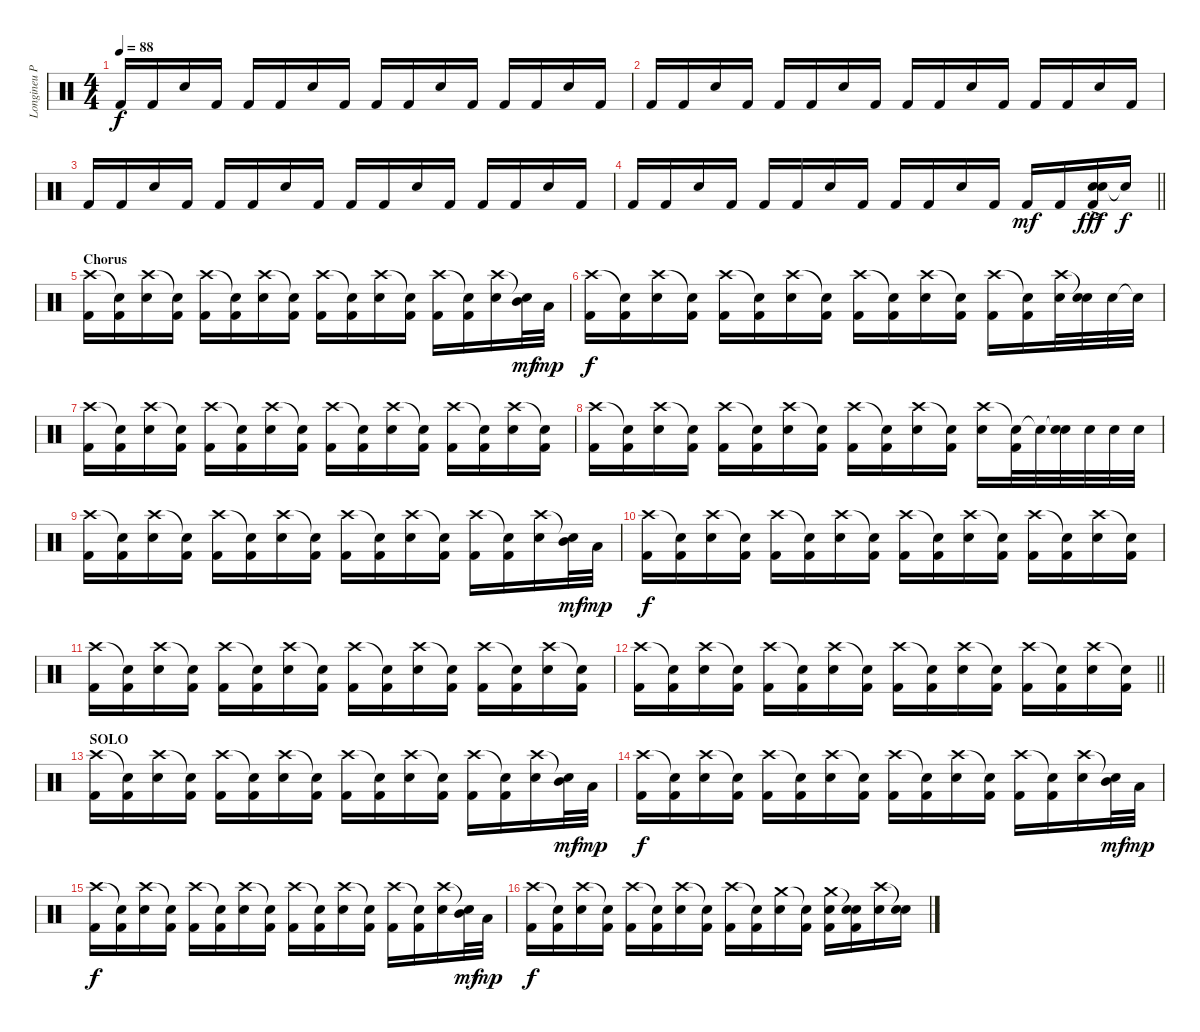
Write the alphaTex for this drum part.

\track ("Longineu Parsons ||| (Drums)" "Longineu P") {instrument percussion}
\staff {score}
\articulation defaults
\ts (4 4)
\tempo 88
\clef neutral
\ks c "Kick (hit) 2".16{dy f} "Kick (hit) 2".16 "Electric Snare (hit)".16 "Kick (hit) 2".16 "Kick (hit) 2".16 "Kick (hit) 2".16 "Electric Snare (hit)".16 "Kick (hit) 2".16 "Kick (hit) 2".16 "Kick (hit) 2".16 "Electric Snare (hit)".16 "Kick (hit) 2".16 "Kick (hit) 2".16 "Kick (hit) 2".16 "Electric Snare (hit)".16 "Kick (hit) 2".16
|
"Kick (hit) 2".16 "Kick (hit) 2".16 "Electric Snare (hit)".16 "Kick (hit) 2".16 "Kick (hit) 2".16 "Kick (hit) 2".16 "Electric Snare (hit)".16 "Kick (hit) 2".16 "Kick (hit) 2".16 "Kick (hit) 2".16 "Electric Snare (hit)".16 "Kick (hit) 2".16 "Kick (hit) 2".16 "Kick (hit) 2".16 "Electric Snare (hit)".16 "Kick (hit) 2".16 |
"Kick (hit) 2".16 "Kick (hit) 2".16 "Electric Snare (hit)".16 "Kick (hit) 2".16 "Kick (hit) 2".16 "Kick (hit) 2".16 "Electric Snare (hit)".16 "Kick (hit) 2".16 "Kick (hit) 2".16 "Kick (hit) 2".16 "Electric Snare (hit)".16 "Kick (hit) 2".16 "Kick (hit) 2".16 "Kick (hit) 2".16 "Electric Snare (hit)".16 "Kick (hit) 2".16 |
\barLineRight lightlight "Kick (hit) 2".16 "Kick (hit) 2".16 "Electric Snare (hit)".16 "Kick (hit) 2".16 "Kick (hit) 2".16 "Kick (hit) 2".16 "Electric Snare (hit)".16 "Kick (hit) 2".16 "Kick (hit) 2".16 "Kick (hit) 2".16 "Electric Snare (hit)".16 "Kick (hit) 2".16 "Kick (hit) 2".16{dy mf} "Kick (hit) 2".16
("Snare (hit) 2" "Electric Snare (hit)"{ac} "Kick (hit) 2").16{dy fff} "Snare (hit)"{t}.16{dy f} |
\section ("" "Chorus")
("Crash high (hit)" "Kick (hit) 2").16 ("Snare (hit)"{t} "Kick (hit) 2").16 ("Crash high (hit)" "Electric Snare (hit)").16 ("Snare (hit)"{t} "Kick (hit) 2").16 ("Crash high (hit)" "Kick (hit) 2").16 ("Snare (hit)"{t} "Kick (hit) 2").16 ("Crash high (hit)" "Electric Snare (hit)").16 ("Snare (hit)"{t} "Kick (hit) 2").16 ("Crash high (hit)" "Kick (hit) 2").16 ("Snare (hit)"{t} "Kick (hit) 2").16 ("Crash high (hit)" "Electric Snare (hit)").16 ("Snare (hit)"{t} "Kick (hit) 2").16 ("Crash high (hit)" "Kick (hit) 2").16 ("Snare (hit)"{t} "Kick (hit) 2").16 ("Crash high (hit)" "Electric Snare (hit)").16 ("Snare (hit)"{t} "Mid Tom (hit)").32{dy mf} "Low Tom (hit)".32{dy mp} |
("Crash high (hit)" "Kick (hit) 2").16{dy f} ("Snare (hit)"{t} "Kick (hit) 2").16 ("Crash high (hit)" "Electric Snare (hit)").16 ("Snare (hit)"{t} "Kick (hit) 2").16 ("Crash high (hit)" "Kick (hit) 2").16 ("Snare (hit)"{t} "Kick (hit) 2").16 ("Crash high (hit)" "Electric Snare (hit)").16 ("Snare (hit)"{t} "Kick (hit) 2").16 ("Crash high (hit)" "Kick (hit) 2").16 ("Snare (hit)"{t} "Kick (hit) 2").16 ("Crash high (hit)" "Electric Snare (hit)").16 ("Snare (hit)"{t} "Kick (hit) 2").16 ("Crash high (hit)" "Kick (hit) 2").16 ("Snare (hit)"{t} "Kick (hit) 2").16 ("Crash high (hit)" "Electric Snare (hit)").32 ("Snare (hit)"{t} "Electric Snare (hit)").32 "Electric Snare (hit)".32 "Electric Snare (hit)"{t}.32 |
("Crash high (hit)" "Kick (hit) 2").16 ("Snare (hit)"{t} "Kick (hit) 2").16 ("Crash high (hit)" "Electric Snare (hit)").16 ("Snare (hit)"{t} "Kick (hit) 2").16 ("Crash high (hit)" "Kick (hit) 2").16 ("Snare (hit)"{t} "Kick (hit) 2").16 ("Crash high (hit)" "Electric Snare (hit)").16 ("Snare (hit)"{t} "Kick (hit) 2").16 ("Crash high (hit)" "Kick (hit) 2").16 ("Snare (hit)"{t} "Kick (hit) 2").16 ("Crash high (hit)" "Electric Snare (hit)").16 ("Snare (hit)"{t} "Kick (hit) 2").16 ("Crash high (hit)" "Kick (hit) 2").16 ("Snare (hit)"{t} "Kick (hit) 2").16 ("Crash high (hit)" "Electric Snare (hit)").16 ("Snare (hit)"{t} "Kick (hit) 2").16 |
("Crash high (hit)" "Kick (hit) 2").16 ("Snare (hit)"{t} "Kick (hit) 2").16 ("Crash high (hit)" "Electric Snare (hit)").16 ("Snare (hit)"{t} "Kick (hit) 2").16 ("Crash high (hit)" "Kick (hit) 2").16 ("Snare (hit)"{t} "Kick (hit) 2").16 ("Crash high (hit)" "Electric Snare (hit)").16 ("Snare (hit)"{t} "Kick (hit) 2").16 ("Crash high (hit)" "Kick (hit) 2").16 ("Snare (hit)"{t} "Kick (hit) 2").16 ("Crash high (hit)" "Electric Snare (hit)").16 ("Snare (hit)"{t} "Kick (hit) 2").16 ("Crash high (hit)" "Snare (hit) 2").16 ("Snare (hit)"{t} "Kick (hit) 2").32 "Electric Snare (hit)"{t}.32 ("Snare (hit)"{t} "Electric Snare (hit)").32 "Electric Snare (hit)".32 "Electric Snare (hit)".32 "Electric Snare (hit)".32 |
("Crash high (hit)" "Kick (hit) 2").16 ("Snare (hit)"{t} "Kick (hit) 2").16 ("Crash high (hit)" "Electric Snare (hit)").16 ("Snare (hit)"{t} "Kick (hit) 2").16 ("Crash high (hit)" "Kick (hit) 2").16 ("Snare (hit)"{t} "Kick (hit) 2").16 ("Crash high (hit)" "Electric Snare (hit)").16 ("Snare (hit)"{t} "Kick (hit) 2").16 ("Crash high (hit)" "Kick (hit) 2").16 ("Snare (hit)"{t} "Kick (hit) 2").16 ("Crash high (hit)" "Electric Snare (hit)").16 ("Snare (hit)"{t} "Kick (hit) 2").16 ("Crash high (hit)" "Kick (hit) 2").16 ("Snare (hit)"{t} "Kick (hit) 2").16 ("Crash high (hit)" "Electric Snare (hit)").16 ("Snare (hit)"{t} "Mid Tom (hit)").32{dy mf} "Low Tom (hit)".32{dy mp} |
("Crash high (hit)" "Kick (hit) 2").16{dy f} ("Snare (hit)"{t} "Kick (hit) 2").16 ("Crash high (hit)" "Electric Snare (hit)").16 ("Snare (hit)"{t} "Kick (hit) 2").16 ("Crash high (hit)" "Kick (hit) 2").16 ("Snare (hit)"{t} "Kick (hit) 2").16 ("Crash high (hit)" "Electric Snare (hit)").16 ("Snare (hit)"{t} "Kick (hit) 2").16 ("Crash high (hit)" "Kick (hit) 2").16 ("Snare (hit)"{t} "Kick (hit) 2").16 ("Crash high (hit)" "Electric Snare (hit)").16 ("Snare (hit)"{t} "Kick (hit) 2").16 ("Crash high (hit)" "Kick (hit) 2").16 ("Snare (hit)"{t} "Kick (hit) 2").16 ("Crash high (hit)" "Electric Snare (hit)").16 ("Snare (hit)"{t} "Kick (hit) 2").16 |
("Crash high (hit)" "Kick (hit) 2").16 ("Snare (hit)"{t} "Kick (hit) 2").16 ("Crash high (hit)" "Electric Snare (hit)").16 ("Snare (hit)"{t} "Kick (hit) 2").16 ("Crash high (hit)" "Kick (hit) 2").16 ("Snare (hit)"{t} "Kick (hit) 2").16 ("Crash high (hit)" "Electric Snare (hit)").16 ("Snare (hit)"{t} "Kick (hit) 2").16 ("Crash high (hit)" "Kick (hit) 2").16 ("Snare (hit)"{t} "Kick (hit) 2").16 ("Crash high (hit)" "Electric Snare (hit)").16 ("Snare (hit)"{t} "Kick (hit) 2").16 ("Crash high (hit)" "Kick (hit) 2").16 ("Snare (hit)"{t} "Kick (hit) 2").16 ("Crash high (hit)" "Electric Snare (hit)").16 ("Snare (hit)"{t} "Kick (hit) 2").16 |
\barLineRight lightlight
("Crash high (hit)" "Kick (hit) 2").16 ("Snare (hit)"{t} "Kick (hit) 2").16 ("Crash high (hit)" "Electric Snare (hit)").16 ("Snare (hit)"{t} "Kick (hit) 2").16 ("Crash high (hit)" "Kick (hit) 2").16 ("Snare (hit)"{t} "Kick (hit) 2").16 ("Crash high (hit)" "Electric Snare (hit)").16 ("Snare (hit)"{t} "Kick (hit) 2").16 ("Crash high (hit)" "Kick (hit) 2").16 ("Snare (hit)"{t} "Kick (hit) 2").16 ("Crash high (hit)" "Electric Snare (hit)").16 ("Snare (hit)"{t} "Kick (hit) 2").16 ("Crash high (hit)" "Kick (hit) 2").16 ("Snare (hit)"{t} "Kick (hit) 2").16 ("Crash high (hit)" "Electric Snare (hit)").16 ("Snare (hit)"{t} "Kick (hit) 2").16 |
\section ("" "SOLO")
("Crash high (hit)" "Kick (hit) 2").16 ("Snare (hit)"{t} "Kick (hit) 2").16 ("Crash high (hit)" "Electric Snare (hit)").16 ("Snare (hit)"{t} "Kick (hit) 2").16 ("Crash high (hit)" "Kick (hit) 2").16 ("Snare (hit)"{t} "Kick (hit) 2").16 ("Crash high (hit)" "Electric Snare (hit)").16 ("Snare (hit)"{t} "Kick (hit) 2").16 ("Crash high (hit)" "Kick (hit) 2").16 ("Snare (hit)"{t} "Kick (hit) 2").16 ("Crash high (hit)" "Electric Snare (hit)").16 ("Snare (hit)"{t} "Kick (hit) 2").16 ("Crash high (hit)" "Kick (hit) 2").16 ("Snare (hit)"{t} "Kick (hit) 2").16 ("Crash high (hit)" "Electric Snare (hit)").16 ("Snare (hit)"{t} "Mid Tom (hit)").32{dy mf} "Low Tom (hit)".32{dy mp} |
("Crash high (hit)" "Kick (hit) 2").16{dy f} ("Snare (hit)"{t} "Kick (hit) 2").16 ("Crash high (hit)" "Electric Snare (hit)").16 ("Snare (hit)"{t} "Kick (hit) 2").16 ("Crash high (hit)" "Kick (hit) 2").16 ("Snare (hit)"{t} "Kick (hit) 2").16 ("Crash high (hit)" "Electric Snare (hit)").16 ("Snare (hit)"{t} "Kick (hit) 2").16 ("Crash high (hit)" "Kick (hit) 2").16 ("Snare (hit)"{t} "Kick (hit) 2").16 ("Crash high (hit)" "Electric Snare (hit)").16 ("Snare (hit)"{t} "Kick (hit) 2").16 ("Crash high (hit)" "Kick (hit) 2").16 ("Snare (hit)"{t} "Kick (hit) 2").16 ("Crash high (hit)" "Electric Snare (hit)").16 ("Snare (hit)"{t} "Mid Tom (hit)").32{dy mf} "Low Tom (hit)".32{dy mp} |
("Crash high (hit)" "Kick (hit) 2").16{dy f} ("Snare (hit)"{t} "Kick (hit) 2").16 ("Crash high (hit)" "Electric Snare (hit)").16 ("Snare (hit)"{t} "Kick (hit) 2").16 ("Crash high (hit)" "Kick (hit) 2").16 ("Snare (hit)"{t} "Kick (hit) 2").16 ("Crash high (hit)" "Electric Snare (hit)").16 ("Snare (hit)"{t} "Kick (hit) 2").16 ("Crash high (hit)" "Kick (hit) 2").16 ("Snare (hit)"{t} "Kick (hit) 2").16 ("Crash high (hit)" "Electric Snare (hit)").16 ("Snare (hit)"{t} "Kick (hit) 2").16 ("Crash high (hit)" "Kick (hit) 2").16 ("Snare (hit)"{t} "Kick (hit) 2").16 ("Crash high (hit)" "Electric Snare (hit)").16 ("Snare (hit)"{t} "Mid Tom (hit)").32{dy mf} "Low Tom (hit)".32{dy mp} |
("Crash high (hit)" "Kick (hit) 2").16{dy f} ("Snare (hit)"{t} "Kick (hit) 2").16 ("Crash high (hit)" "Electric Snare (hit)").16 ("Snare (hit)"{t} "Kick (hit) 2").16 ("Crash high (hit)" "Kick (hit) 2").16 ("Snare (hit)"{t} "Kick (hit) 2").16 ("Crash high (hit)" "Electric Snare (hit)").16 ("Snare (hit)"{t} "Kick (hit) 2").16 ("Crash high (hit)" "Kick (hit) 2").16 ("Snare (hit)"{t} "Kick (hit) 2").16 ("Crash medium (hit)" "Electric Snare (hit)").16 ("Snare (hit)"{t} "Kick (hit) 2").16 ("Crash medium (hit)" "Electric Snare (hit)" "Kick (hit) 2").16 ("Snare (hit)"{t} "Electric Snare (hit)" "Kick (hit) 2").16 ("Crash high (hit)" "Electric Snare (hit)").16 ("Snare (hit)"{t} "Electric Snare (hit)").16
